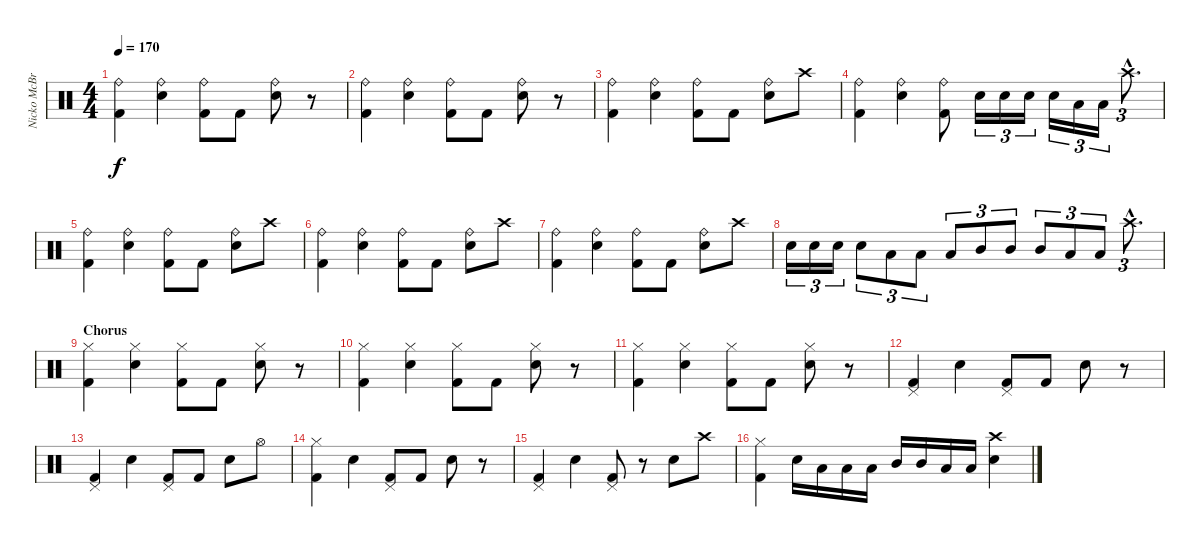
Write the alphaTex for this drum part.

\track ("Nicko McBrain" "Nicko McBr") {instrument percussion}
\staff {score}
\articulation defaults
\ts (4 4)
\tempo 170
\clef neutral
\ks c
("Ride (bell)" "Kick (hit) 2").4{dy f} ("Ride (bell)" "Snare (hit) 2").4 ("Ride (bell)" "Kick (hit) 2").8 "Kick (hit) 2".8 ("Ride (bell)" "Snare (hit) 2").8 r.8 |
("Ride (bell)" "Kick (hit) 2").4 ("Ride (bell)" "Snare (hit) 2").4 ("Ride (bell)" "Kick (hit) 2").8 "Kick (hit) 2".8 ("Ride (bell)" "Snare (hit) 2").8 r.8 |
("Ride (bell)" "Kick (hit) 2").4 ("Ride (bell)" "Snare (hit) 2").4 ("Ride (bell)" "Kick (hit) 2").8 "Kick (hit) 2".8 ("Ride (bell)" "Snare (hit) 2").8 "Crash high (hit)".8 |
("Ride (bell)" "Kick (hit) 2").4 ("Ride (bell)" "Snare (hit) 2").4 ("Ride (bell)" "Kick (hit) 2").8 "Snare (hit) 2".16{tu (3 2)} "Snare (hit) 2".16{tu (3 2)} "Snare (hit) 2".16{tu (3 2)} "Snare (hit) 2".16{tu (3 2)} "Low Tom (hit)".16{tu (3 2)} "Low Tom (hit)".16{tu (3 2)} "Crash high (hit)"{hac}.8{d tu (3 2)} |
("Ride (bell)" "Kick (hit) 2").4 ("Ride (bell)" "Snare (hit) 2").4 ("Ride (bell)" "Kick (hit) 2").8 "Kick (hit) 2".8 ("Ride (bell)" "Snare (hit) 2").8 "Crash high (hit)".8 |
("Ride (bell)" "Kick (hit) 2").4 ("Ride (bell)" "Snare (hit) 2").4 ("Ride (bell)" "Kick (hit) 2").8 "Kick (hit) 2".8 ("Ride (bell)" "Snare (hit) 2").8 "Crash high (hit)".8 |
("Ride (bell)" "Kick (hit) 2").4 ("Ride (bell)" "Snare (hit) 2").4 ("Ride (bell)" "Kick (hit) 2").8 "Kick (hit) 2".8 ("Ride (bell)" "Snare (hit) 2").8 "Crash high (hit)".8 |
"Snare (hit) 2".16{tu (3 2)} "Snare (hit) 2".16{tu (3 2)} "Snare (hit) 2".16{tu (3 2)} "Snare (hit) 2".8{tu (3 2)} "Low Tom (hit)".8{tu (3 2)} "Low Tom (hit)".8{tu (3 2)} "Low Tom (hit)".8{tu (3 2)} "Mid Tom (hit)".8{tu (3 2)} "Mid Tom (hit)".8{tu (3 2)} "Mid Tom (hit)".8{tu (3 2)} "Low Tom (hit)".8{tu (3 2)} "Low Tom (hit)".8{tu (3 2)} "Crash high (hit)"{hac}.8{d tu (3 2)} |
\section ("" "Chorus")
("Hi-Hat (closed)" "Kick (hit) 2").4 ("Hi-Hat (closed)" "Snare (hit) 2").4 ("Hi-Hat (closed)" "Kick (hit) 2").8 "Kick (hit) 2".8 ("Hi-Hat (closed)" "Snare (hit) 2").8 r.8 |
("Hi-Hat (closed)" "Kick (hit) 2").4 ("Hi-Hat (closed)" "Snare (hit) 2").4 ("Hi-Hat (closed)" "Kick (hit) 2").8 "Kick (hit) 2".8 ("Hi-Hat (closed)" "Snare (hit) 2").8 r.8 |
("Hi-Hat (closed)" "Kick (hit) 2").4 ("Hi-Hat (closed)" "Snare (hit) 2").4 ("Hi-Hat (closed)" "Kick (hit) 2").8 "Kick (hit) 2".8 ("Hi-Hat (closed)" "Snare (hit) 2").8 r.8 |
("Pedal Hi-Hat (hit)" "Kick (hit) 2").4 "Snare (hit) 2".4 ("Pedal Hi-Hat (hit)" "Kick (hit) 2").8 "Kick (hit) 2".8 "Snare (hit) 2".8 r.8 |
("Pedal Hi-Hat (hit)" "Kick (hit) 2").4 "Snare (hit) 2".4 ("Pedal Hi-Hat (hit)" "Kick (hit) 2").8 "Kick (hit) 2".8 "Snare (hit) 2".8 "Hi-Hat (open)".8 |
("Hi-Hat (closed)" "Kick (hit) 2").4 "Snare (hit) 2".4 ("Pedal Hi-Hat (hit)" "Kick (hit) 2").8 "Kick (hit) 2".8 "Snare (hit) 2".8 r.8 |
("Pedal Hi-Hat (hit)" "Kick (hit) 2").4 "Snare (hit) 2".4 ("Pedal Hi-Hat (hit)" "Kick (hit) 2").8 r.8 "Snare (hit) 2".8 "Crash high (hit)".8 |
("Hi-Hat (closed)" "Kick (hit) 2").4 "Snare (hit) 2".16 "Low Tom (hit)".16 "Low Tom (hit)".16 "Low Tom (hit)".16 "Mid Tom (hit)".16 "Mid Tom (hit)".16 "Low Tom (hit)".16 "Low Tom (hit)".16 ("Crash high (hit)" "Snare (hit) 2").4
